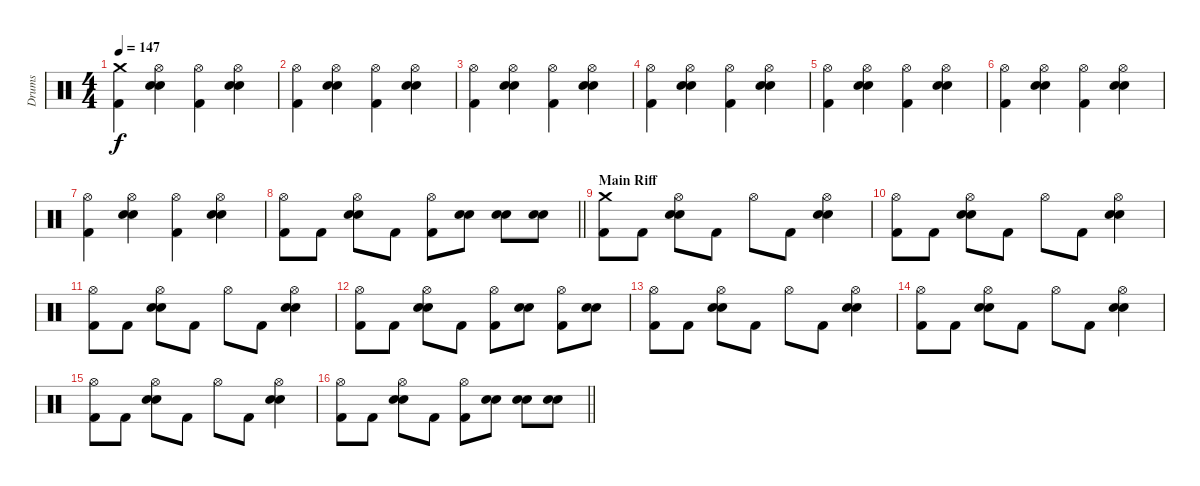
\track ("Drums" "Drums") {instrument percussion}
\staff {score}
\articulation defaults
\ts (4 4)
\section ("" "")
\tempo 147
\clef neutral
\ks c
("Crash medium (hit)" "Kick (hit) 2").4{dy f} ("Hi-Hat (open)" "Electric Snare (hit)" "Snare (hit) 2").4 ("Hi-Hat (open)" "Kick (hit) 2").4 ("Hi-Hat (open)" "Electric Snare (hit)" "Snare (hit) 2").4 |
("Hi-Hat (open)" "Kick (hit) 2").4 ("Hi-Hat (open)" "Electric Snare (hit)" "Snare (hit) 2").4 ("Hi-Hat (open)" "Kick (hit) 2").4 ("Hi-Hat (open)" "Electric Snare (hit)" "Snare (hit) 2").4 |
("Hi-Hat (open)" "Kick (hit) 2").4 ("Hi-Hat (open)" "Electric Snare (hit)" "Snare (hit) 2").4 ("Hi-Hat (open)" "Kick (hit) 2").4 ("Hi-Hat (open)" "Electric Snare (hit)" "Snare (hit) 2").4 |
("Hi-Hat (open)" "Kick (hit) 2").4 ("Hi-Hat (open)" "Electric Snare (hit)" "Snare (hit) 2").4 ("Hi-Hat (open)" "Kick (hit) 2").4 ("Hi-Hat (open)" "Electric Snare (hit)" "Snare (hit) 2").4 |
("Hi-Hat (open)" "Kick (hit) 2").4 ("Hi-Hat (open)" "Electric Snare (hit)" "Snare (hit) 2").4 ("Hi-Hat (open)" "Kick (hit) 2").4 ("Hi-Hat (open)" "Electric Snare (hit)" "Snare (hit) 2").4 |
("Hi-Hat (open)" "Kick (hit) 2").4 ("Hi-Hat (open)" "Electric Snare (hit)" "Snare (hit) 2").4 ("Hi-Hat (open)" "Kick (hit) 2").4 ("Hi-Hat (open)" "Electric Snare (hit)" "Snare (hit) 2").4 |
("Hi-Hat (open)" "Kick (hit) 2").4 ("Hi-Hat (open)" "Electric Snare (hit)" "Snare (hit) 2").4 ("Hi-Hat (open)" "Kick (hit) 2").4 ("Hi-Hat (open)" "Electric Snare (hit)" "Snare (hit) 2").4 |
\barLineRight lightlight
("Hi-Hat (open)" "Kick (hit) 2").8 "Kick (hit) 2".8 ("Hi-Hat (open)" "Electric Snare (hit)" "Snare (hit) 2").8 "Kick (hit) 2".8 ("Hi-Hat (open)" "Kick (hit) 2").8 ("Electric Snare (hit)" "Snare (hit) 2").8 ("Electric Snare (hit)" "Snare (hit) 2").8 ("Electric Snare (hit)" "Snare (hit) 2").8 |
\section ("" "Main Riff")
("Crash medium (hit)" "Kick (hit) 2").8 "Kick (hit) 2".8 ("Hi-Hat (open)" "Electric Snare (hit)" "Snare (hit) 2").8 "Kick (hit) 2".8 "Hi-Hat (open)".8 "Kick (hit) 2".8 ("Hi-Hat (open)" "Electric Snare (hit)" "Snare (hit) 2").4 |
("Hi-Hat (open)" "Kick (hit) 2").8 "Kick (hit) 2".8 ("Hi-Hat (open)" "Electric Snare (hit)" "Snare (hit) 2").8 "Kick (hit) 2".8 "Hi-Hat (open)".8 "Kick (hit) 2".8 ("Hi-Hat (open)" "Electric Snare (hit)" "Snare (hit) 2").4 |
("Hi-Hat (open)" "Kick (hit) 2").8 "Kick (hit) 2".8 ("Hi-Hat (open)" "Electric Snare (hit)" "Snare (hit) 2").8 "Kick (hit) 2".8 "Hi-Hat (open)".8 "Kick (hit) 2".8 ("Hi-Hat (open)" "Electric Snare (hit)" "Snare (hit) 2").4 |
("Hi-Hat (open)" "Kick (hit) 2").8 "Kick (hit) 2".8 ("Hi-Hat (open)" "Electric Snare (hit)" "Snare (hit) 2").8 "Kick (hit) 2".8 ("Hi-Hat (open)" "Kick (hit) 2").8 ("Electric Snare (hit)" "Snare (hit) 2").8 ("Hi-Hat (open)" "Kick (hit) 2").8 ("Electric Snare (hit)" "Snare (hit) 2").8 |
("Hi-Hat (open)" "Kick (hit) 2").8 "Kick (hit) 2".8 ("Hi-Hat (open)" "Electric Snare (hit)" "Snare (hit) 2").8 "Kick (hit) 2".8 "Hi-Hat (open)".8 "Kick (hit) 2".8 ("Hi-Hat (open)" "Electric Snare (hit)" "Snare (hit) 2").4 |
("Hi-Hat (open)" "Kick (hit) 2").8 "Kick (hit) 2".8 ("Hi-Hat (open)" "Electric Snare (hit)" "Snare (hit) 2").8 "Kick (hit) 2".8 "Hi-Hat (open)".8 "Kick (hit) 2".8 ("Hi-Hat (open)" "Electric Snare (hit)" "Snare (hit) 2").4 |
("Hi-Hat (open)" "Kick (hit) 2").8 "Kick (hit) 2".8 ("Hi-Hat (open)" "Electric Snare (hit)" "Snare (hit) 2").8 "Kick (hit) 2".8 "Hi-Hat (open)".8 "Kick (hit) 2".8 ("Hi-Hat (open)" "Electric Snare (hit)" "Snare (hit) 2").4 |
\barLineRight lightlight
("Hi-Hat (open)" "Kick (hit) 2").8 "Kick (hit) 2".8 ("Hi-Hat (open)" "Electric Snare (hit)" "Snare (hit) 2").8 "Kick (hit) 2".8 ("Hi-Hat (open)" "Kick (hit) 2").8 ("Electric Snare (hit)" "Snare (hit) 2").8 ("Electric Snare (hit)" "Snare (hit) 2").8 ("Electric Snare (hit)" "Snare (hit) 2").8
